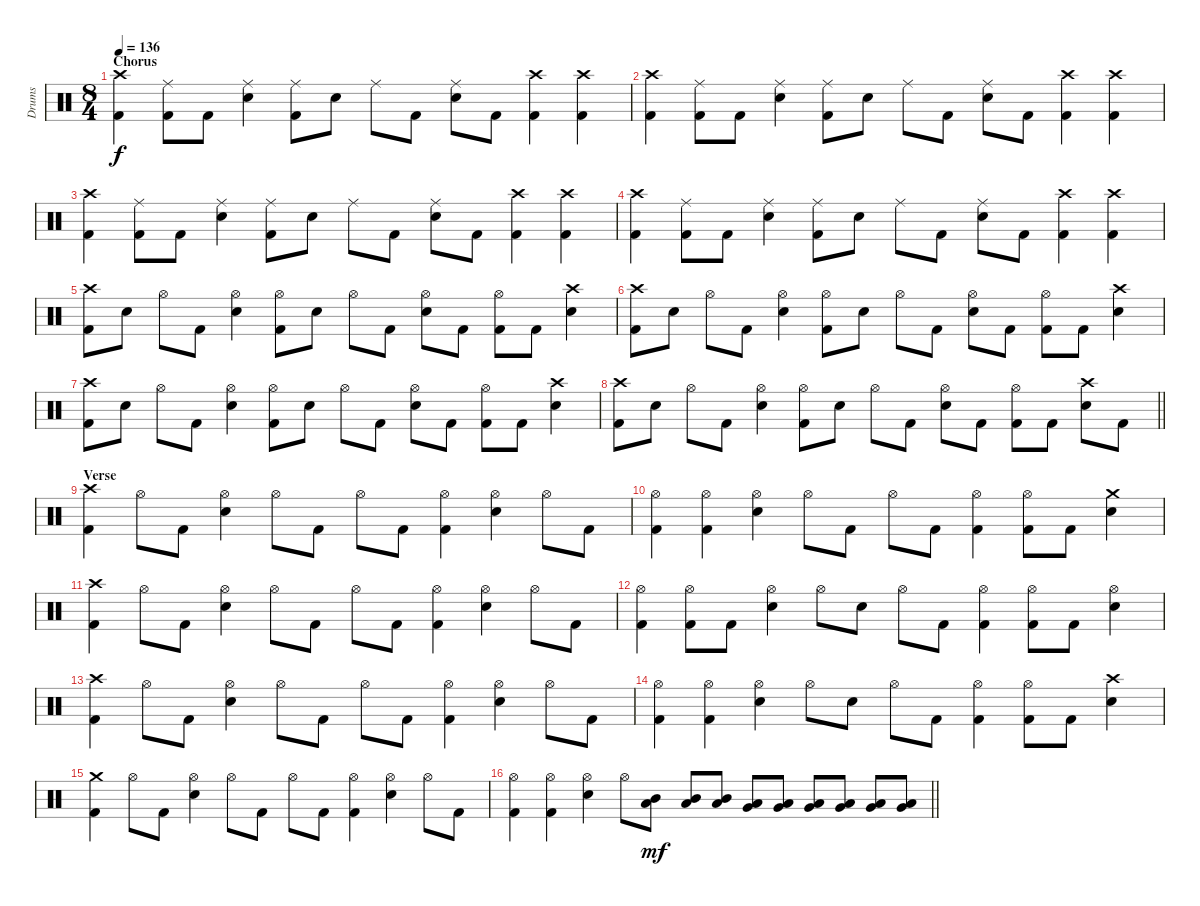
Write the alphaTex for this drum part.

\track ("Drums" "Drums") {instrument percussion}
\staff {score}
\articulation defaults
\ts (8 4)
\section ("" "Chorus")
\tempo 136
\clef neutral
\ks c
("Crash high (hit)" "Kick (hit) 2").4{dy f} ("Ride (middle)" "Kick (hit) 2").8 "Kick (hit) 2".8 ("Ride (middle)" "Snare (hit) 2").4 ("Ride (middle)" "Kick (hit) 2").8 "Snare (hit) 2".8 "Ride (middle)".8 "Kick (hit) 2".8 ("Ride (middle)" "Snare (hit) 2").8 "Kick (hit) 2".8 ("Crash high (hit)" "Kick (hit) 2").4 ("Crash high (hit)" "Kick (hit) 2").4 |
("Crash high (hit)" "Kick (hit) 2").4 ("Ride (middle)" "Kick (hit) 2").8 "Kick (hit) 2".8 ("Ride (middle)" "Snare (hit) 2").4 ("Ride (middle)" "Kick (hit) 2").8 "Snare (hit) 2".8 "Ride (middle)".8 "Kick (hit) 2".8 ("Ride (middle)" "Snare (hit) 2").8 "Kick (hit) 2".8 ("Crash high (hit)" "Kick (hit) 2").4 ("Crash high (hit)" "Kick (hit) 2").4 |
("Crash high (hit)" "Kick (hit) 2").4 ("Ride (middle)" "Kick (hit) 2").8 "Kick (hit) 2".8 ("Ride (middle)" "Snare (hit) 2").4 ("Ride (middle)" "Kick (hit) 2").8 "Snare (hit) 2".8 "Ride (middle)".8 "Kick (hit) 2".8 ("Ride (middle)" "Snare (hit) 2").8 "Kick (hit) 2".8 ("Crash high (hit)" "Kick (hit) 2").4 ("Crash high (hit)" "Kick (hit) 2").4 |
("Crash high (hit)" "Kick (hit) 2").4 ("Ride (middle)" "Kick (hit) 2").8 "Kick (hit) 2".8 ("Ride (middle)" "Snare (hit) 2").4 ("Ride (middle)" "Kick (hit) 2").8 "Snare (hit) 2".8 "Ride (middle)".8 "Kick (hit) 2".8 ("Ride (middle)" "Snare (hit) 2").8 "Kick (hit) 2".8 ("Crash high (hit)" "Kick (hit) 2").4 ("Crash high (hit)" "Kick (hit) 2").4 |
("Crash high (hit)" "Kick (hit) 2").8 "Snare (hit) 2".8 "Hi-Hat (open)".8 "Kick (hit) 2".8 ("Hi-Hat (open)" "Snare (hit) 2").4 ("Hi-Hat (open)" "Kick (hit) 2").8 "Snare (hit) 2".8 "Hi-Hat (open)".8 "Kick (hit) 2".8 ("Hi-Hat (open)" "Snare (hit) 2").8 "Kick (hit) 2".8 ("Hi-Hat (open)" "Kick (hit) 2").8 "Kick (hit) 2".8 ("Crash high (hit)" "Snare (hit) 2").4 |
("Crash high (hit)" "Kick (hit) 2").8 "Snare (hit) 2".8 "Hi-Hat (open)".8 "Kick (hit) 2".8 ("Hi-Hat (open)" "Snare (hit) 2").4 ("Hi-Hat (open)" "Kick (hit) 2").8 "Snare (hit) 2".8 "Hi-Hat (open)".8 "Kick (hit) 2".8 ("Hi-Hat (open)" "Snare (hit) 2").8 "Kick (hit) 2".8 ("Hi-Hat (open)" "Kick (hit) 2").8 "Kick (hit) 2".8 ("Crash high (hit)" "Snare (hit) 2").4 |
("Crash high (hit)" "Kick (hit) 2").8 "Snare (hit) 2".8 "Hi-Hat (open)".8 "Kick (hit) 2".8 ("Hi-Hat (open)" "Snare (hit) 2").4 ("Hi-Hat (open)" "Kick (hit) 2").8 "Snare (hit) 2".8 "Hi-Hat (open)".8 "Kick (hit) 2".8 ("Hi-Hat (open)" "Snare (hit) 2").8 "Kick (hit) 2".8 ("Hi-Hat (open)" "Kick (hit) 2").8 "Kick (hit) 2".8 ("Crash high (hit)" "Snare (hit) 2").4 |
\barLineRight lightlight
("Crash high (hit)" "Kick (hit) 2").8 "Snare (hit) 2".8 "Hi-Hat (open)".8 "Kick (hit) 2".8 ("Hi-Hat (open)" "Snare (hit) 2").4 ("Hi-Hat (open)" "Kick (hit) 2").8 "Snare (hit) 2".8 "Hi-Hat (open)".8 "Kick (hit) 2".8 ("Hi-Hat (open)" "Snare (hit) 2").8 "Kick (hit) 2".8 ("Hi-Hat (open)" "Kick (hit) 2").8 "Kick (hit) 2".8 ("Crash high (hit)" "Snare (hit) 2").8 "Kick (hit) 2".8 |
\section ("" "Verse")
("Crash high (hit)" "Kick (hit) 2").4 "Hi-Hat (open)".8 "Kick (hit) 2".8 ("Hi-Hat (open)" "Snare (hit) 2").4 "Hi-Hat (open)".8 "Kick (hit) 2".8 "Hi-Hat (open)".8 "Kick (hit) 2".8 ("Hi-Hat (open)" "Kick (hit) 2").4 ("Hi-Hat (open)" "Snare (hit) 2").4 "Hi-Hat (open)".8 "Kick (hit) 2".8 |
("Hi-Hat (open)" "Kick (hit) 2").4 ("Hi-Hat (open)" "Kick (hit) 2").4 ("Hi-Hat (open)" "Snare (hit) 2").4 "Hi-Hat (open)".8 "Kick (hit) 2".8 "Hi-Hat (open)".8 "Kick (hit) 2".8 ("Hi-Hat (open)" "Kick (hit) 2").4 ("Hi-Hat (open)" "Kick (hit) 2").8 "Kick (hit) 2".8 ("Crash medium (hit)" "Snare (hit) 2").4 |
("Crash high (hit)" "Kick (hit) 2").4 "Hi-Hat (open)".8 "Kick (hit) 2".8 ("Hi-Hat (open)" "Snare (hit) 2").4 "Hi-Hat (open)".8 "Kick (hit) 2".8 "Hi-Hat (open)".8 "Kick (hit) 2".8 ("Hi-Hat (open)" "Kick (hit) 2").4 ("Hi-Hat (open)" "Snare (hit) 2").4 "Hi-Hat (open)".8 "Kick (hit) 2".8 |
("Hi-Hat (open)" "Kick (hit) 2").4 ("Hi-Hat (open)" "Kick (hit) 2").8 "Kick (hit) 2".8 ("Hi-Hat (open)" "Snare (hit) 2").4 "Hi-Hat (open)".8 "Snare (hit) 2".8 "Hi-Hat (open)".8 "Kick (hit) 2".8 ("Hi-Hat (open)" "Kick (hit) 2").4 ("Hi-Hat (open)" "Kick (hit) 2").8 "Kick (hit) 2".8 ("Hi-Hat (open)" "Snare (hit) 2").4 |
("Crash high (hit)" "Kick (hit) 2").4 "Hi-Hat (open)".8 "Kick (hit) 2".8 ("Hi-Hat (open)" "Snare (hit) 2").4 "Hi-Hat (open)".8 "Kick (hit) 2".8 "Hi-Hat (open)".8 "Kick (hit) 2".8 ("Hi-Hat (open)" "Kick (hit) 2").4 ("Hi-Hat (open)" "Snare (hit) 2").4 "Hi-Hat (open)".8 "Kick (hit) 2".8 |
("Hi-Hat (open)" "Kick (hit) 2").4 ("Hi-Hat (open)" "Kick (hit) 2").4 ("Hi-Hat (open)" "Snare (hit) 2").4 "Hi-Hat (open)".8 "Snare (hit) 2".8 "Hi-Hat (open)".8 "Kick (hit) 2".8 ("Hi-Hat (open)" "Kick (hit) 2").4 ("Hi-Hat (open)" "Kick (hit) 2").8 "Kick (hit) 2".8 ("Crash high (hit)" "Snare (hit) 2").4 |
("Crash medium (hit)" "Kick (hit) 2").4 "Hi-Hat (open)".8 "Kick (hit) 2".8 ("Hi-Hat (open)" "Snare (hit) 2").4 "Hi-Hat (open)".8 "Kick (hit) 2".8 "Hi-Hat (open)".8 "Kick (hit) 2".8 ("Hi-Hat (open)" "Kick (hit) 2").4 ("Hi-Hat (open)" "Snare (hit) 2").4 "Hi-Hat (open)".8 "Kick (hit) 2".8 |
\barLineRight lightlight
("Hi-Hat (open)" "Kick (hit) 2").4 ("Hi-Hat (open)" "Kick (hit) 2").4 ("Hi-Hat (open)" "Snare (hit) 2").4 "Hi-Hat (open)".8 ("Mid Tom (hit)" "Low Tom (hit)").8{dy mf} ("Mid Tom (hit)" "Low Tom (hit)").8 ("Mid Tom (hit)" "Low Tom (hit)").8 ("Low Tom (hit)" "Very Low Tom (hit)").8 ("Low Tom (hit)" "Very Low Tom (hit)").8 ("Low Tom (hit)" "Very Low Tom (hit)").8 ("Very Low Tom (hit)" "Low Floor Tom (hit)").8 ("Very Low Tom (hit)" "Low Floor Tom (hit)").8 ("Very Low Tom (hit)" "Low Floor Tom (hit)").8
